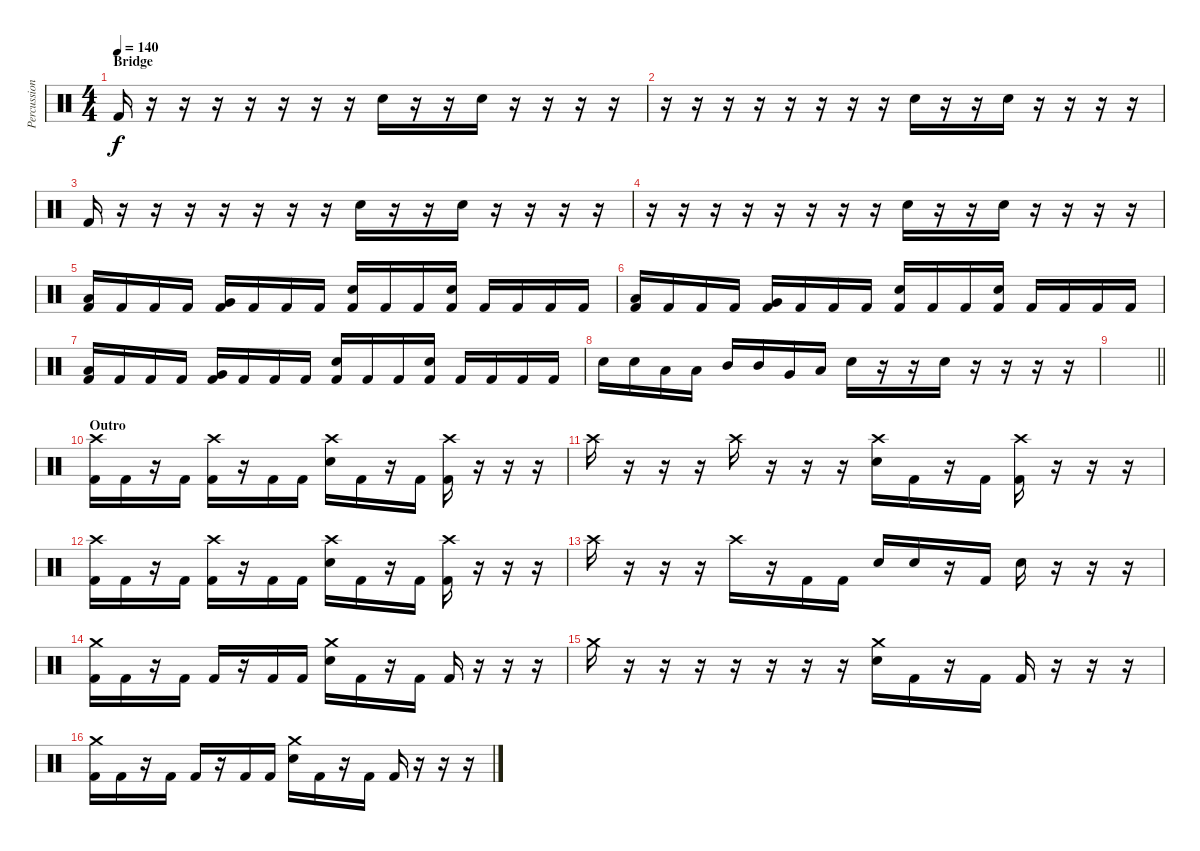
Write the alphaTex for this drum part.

\track ("Percussion" "Percussion") {instrument percussion}
\staff {score}
\articulation defaults
\ts (4 4)
\section ("" "Bridge")
\tempo 140
\clef neutral
\ks c "Kick (hit) 2".16{dy f}
r.16 r.16 r.16 r.16 r.16 r.16 r.16 "Electric Snare (hit)".16 r.16 r.16 "Electric Snare (hit)".16 r.16 r.16 r.16 r.16 |
r.16 r.16 r.16 r.16 r.16 r.16 r.16 r.16 "Electric Snare (hit)".16 r.16 r.16 "Electric Snare (hit)".16 r.16 r.16 r.16 r.16 |
"Kick (hit) 2".16 r.16 r.16 r.16 r.16 r.16 r.16 r.16 "Electric Snare (hit)".16 r.16 r.16 "Electric Snare (hit)".16 r.16 r.16 r.16 r.16 |
r.16 r.16 r.16 r.16 r.16 r.16 r.16 r.16 "Electric Snare (hit)".16 r.16 r.16 "Electric Snare (hit)".16 r.16 r.16 r.16 r.16 |
("Low Tom (hit)" "Kick (hit) 2").16 "Kick (hit) 2".16 "Kick (hit) 2".16 "Kick (hit) 2".16 ("Very Low Tom (hit)" "Kick (hit) 2").16 "Kick (hit) 2".16 "Kick (hit) 2".16 "Kick (hit) 2".16 ("Electric Snare (hit)" "Kick (hit) 2").16 "Kick (hit) 2".16 "Kick (hit) 2".16 ("Electric Snare (hit)" "Kick (hit) 2").16 "Kick (hit) 2".16 "Kick (hit) 2".16 "Kick (hit) 2".16 "Kick (hit) 2".16 |
("Low Tom (hit)" "Kick (hit) 2").16 "Kick (hit) 2".16 "Kick (hit) 2".16 "Kick (hit) 2".16 ("Very Low Tom (hit)" "Kick (hit) 2").16 "Kick (hit) 2".16 "Kick (hit) 2".16 "Kick (hit) 2".16 ("Electric Snare (hit)" "Kick (hit) 2").16 "Kick (hit) 2".16 "Kick (hit) 2".16 ("Electric Snare (hit)" "Kick (hit) 2").16 "Kick (hit) 2".16 "Kick (hit) 2".16 "Kick (hit) 2".16 "Kick (hit) 2".16 |
("Low Tom (hit)" "Kick (hit) 2").16 "Kick (hit) 2".16 "Kick (hit) 2".16 "Kick (hit) 2".16 ("Very Low Tom (hit)" "Kick (hit) 2").16 "Kick (hit) 2".16 "Kick (hit) 2".16 "Kick (hit) 2".16 ("Electric Snare (hit)" "Kick (hit) 2").16 "Kick (hit) 2".16 "Kick (hit) 2".16 ("Electric Snare (hit)" "Kick (hit) 2").16 "Kick (hit) 2".16 "Kick (hit) 2".16 "Kick (hit) 2".16 "Kick (hit) 2".16 |
"Electric Snare (hit)".16 "Electric Snare (hit)".16 "Low Tom (hit)".16 "Low Tom (hit)".16 "Mid Tom (hit)".16 "Mid Tom (hit)".16 "Very Low Tom (hit)".16 "Low Floor Tom (hit)".16 "Electric Snare (hit)".16 r.16 r.16 "Electric Snare (hit)".16 r.16 r.16 r.16 r.16 |
\barLineRight lightlight
|
\section ("" "Outro")
("Crash high (hit)" "Kick (hit) 2").16 "Kick (hit) 2".16 r.16 "Kick (hit) 2".16 ("Crash high (hit)" "Kick (hit) 2").16 r.16 "Kick (hit) 2".16 "Kick (hit) 2".16 ("Crash high (hit)" "Electric Snare (hit)").16 "Kick (hit) 2".16 r.16 "Kick (hit) 2".16 ("Crash high (hit)" "Kick (hit) 2").16 r.16 r.16 r.16 |
"Crash high (hit)".16 r.16 r.16 r.16 "Crash high (hit)".16 r.16 r.16 r.16 ("Crash high (hit)" "Electric Snare (hit)").16 "Kick (hit) 2".16 r.16 "Kick (hit) 2".16 ("Crash high (hit)" "Kick (hit) 2").16 r.16 r.16 r.16 |
("Crash high (hit)" "Kick (hit) 2").16 "Kick (hit) 2".16 r.16 "Kick (hit) 2".16 ("Crash high (hit)" "Kick (hit) 2").16 r.16 "Kick (hit) 2".16 "Kick (hit) 2".16 ("Crash high (hit)" "Electric Snare (hit)").16 "Kick (hit) 2".16 r.16 "Kick (hit) 2".16 ("Crash high (hit)" "Kick (hit) 2").16 r.16 r.16 r.16 |
"Crash high (hit)".16 r.16 r.16 r.16 "Crash high (hit)".16 r.16 "Kick (hit) 2".16 "Kick (hit) 2".16 "Electric Snare (hit)".16 "Electric Snare (hit)".16 r.16 "Kick (hit) 2".16 "Electric Snare (hit)".16 r.16 r.16 r.16 |
("Crash medium (hit)" "Kick (hit) 2").16 "Kick (hit) 2".16 r.16 "Kick (hit) 2".16 "Kick (hit) 2".16 r.16 "Kick (hit) 2".16 "Kick (hit) 2".16 ("Crash medium (hit)" "Electric Snare (hit)").16 "Kick (hit) 2".16 r.16 "Kick (hit) 2".16 "Kick (hit) 2".16 r.16 r.16 r.16 |
"Crash medium (hit)".16 r.16 r.16 r.16 r.16 r.16 r.16 r.16 ("Crash medium (hit)" "Electric Snare (hit)").16 "Kick (hit) 2".16 r.16 "Kick (hit) 2".16 "Kick (hit) 2".16 r.16 r.16 r.16 |
("Crash medium (hit)" "Kick (hit) 2").16 "Kick (hit) 2".16 r.16 "Kick (hit) 2".16 "Kick (hit) 2".16 r.16 "Kick (hit) 2".16 "Kick (hit) 2".16 ("Crash medium (hit)" "Electric Snare (hit)").16 "Kick (hit) 2".16 r.16 "Kick (hit) 2".16 "Kick (hit) 2".16 r.16 r.16 r.16
